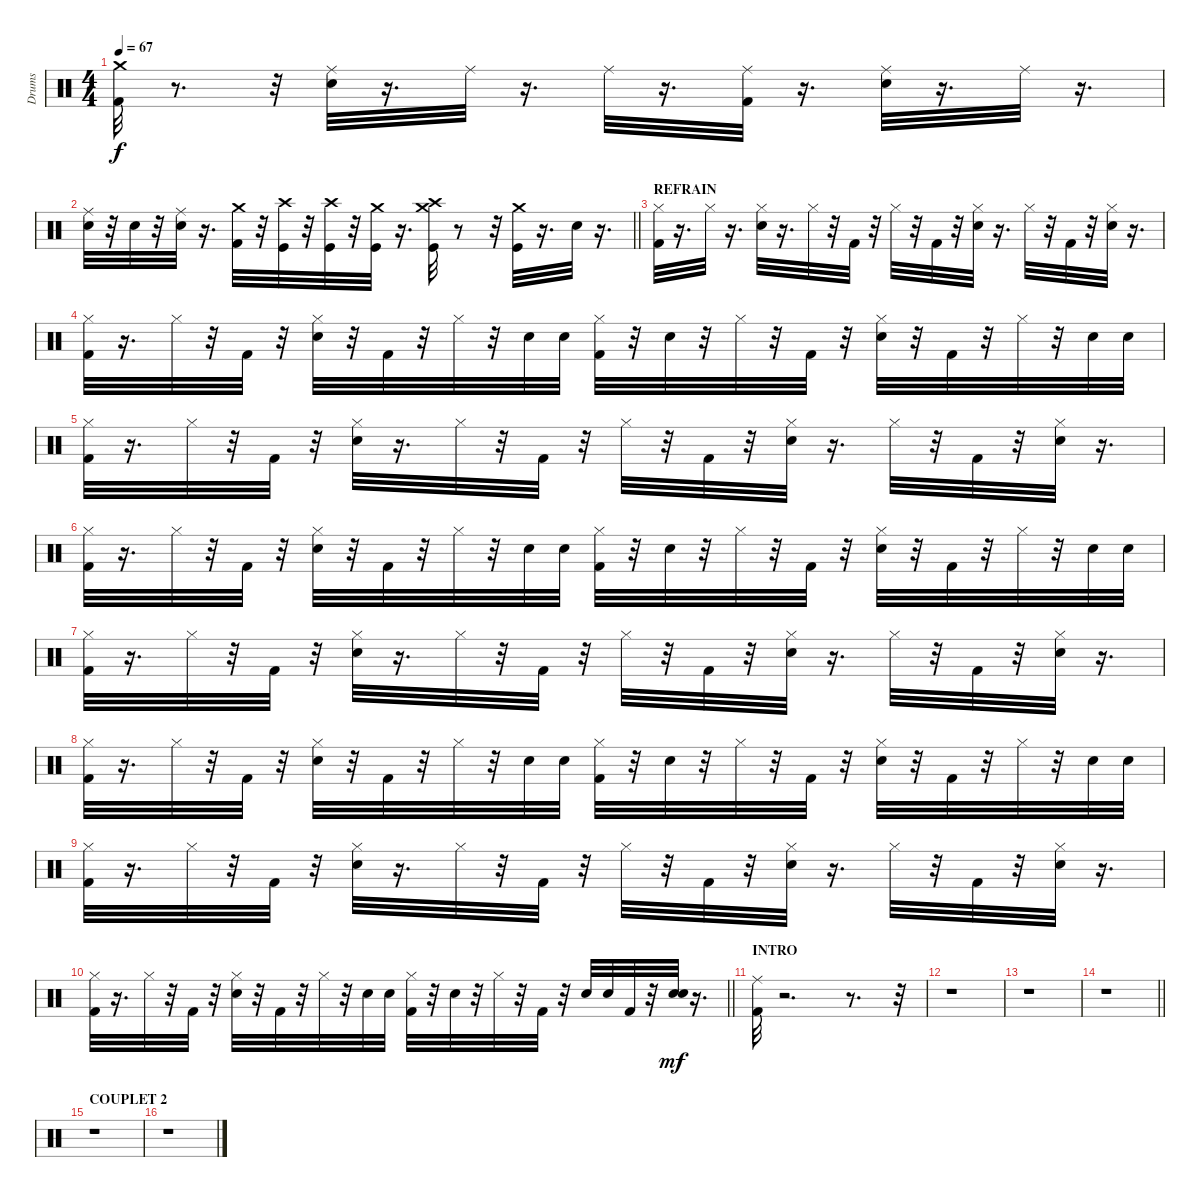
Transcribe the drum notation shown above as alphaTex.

\track ("Drums" "Drums") {instrument percussion}
\staff {score}
\articulation defaults
\ts (4 4)
\tempo 67
\clef neutral
\ks c
("Crash medium (hit)" "Kick (hit) 2").32{dy f} r.8{d} r.32 ("Ride (middle)" "Snare (hit) 2").32 r.16{d} "Ride (middle)".32 r.16{d} "Ride (middle)".32 r.16{d} ("Ride (middle)" "Kick (hit) 2").32 r.16{d} ("Ride (middle)" "Snare (hit) 2").32 r.16{d} "Ride (middle)".32 r.16{d} |
\barLineRight lightlight
("Snare (hit) 2" "Ride (middle)").32 r.32 "Snare (hit) 2".32 r.32 ("Snare (hit) 2" "Ride (middle)").32 r.16{d} ("Crash medium (hit)" "Kick (hit) 2").32 r.32 ("Crash high (hit)" "Kick (hit)").32 r.32 ("Crash high (hit)" "Kick (hit)").32 r.32 ("Crash medium (hit)" "Kick (hit)").32 r.16{d} ("Crash high (hit)" "Crash medium (hit)" "Kick (hit)").32 r.8 r.32 ("Crash medium (hit)" "Kick (hit)").32 r.16{d} "Snare (hit) 2".32 r.16{d} |
\section ("" "REFRAIN")
("Kick (hit) 2" "Hi-Hat (closed)").32 r.16{d} "Hi-Hat (closed)".32 r.16{d} ("Snare (hit) 2" "Hi-Hat (closed)").32 r.16{d} "Hi-Hat (closed)".32 r.32 "Kick (hit) 2".32 r.32 "Hi-Hat (closed)".32 r.32 "Kick (hit) 2".32 r.32 ("Snare (hit) 2" "Hi-Hat (closed)").32 r.16{d} "Hi-Hat (closed)".32 r.32 "Kick (hit) 2".32 r.32 ("Snare (hit) 2" "Hi-Hat (closed)").32 r.16{d} |
("Kick (hit) 2" "Hi-Hat (closed)").32 r.16{d} "Hi-Hat (closed)".32 r.32 "Kick (hit) 2".32 r.32 ("Snare (hit) 2" "Hi-Hat (closed)").32 r.32 "Kick (hit) 2".32 r.32 "Hi-Hat (closed)".32 r.32 "Snare (hit) 2".32 "Snare (hit) 2".32 ("Kick (hit) 2" "Hi-Hat (closed)").32 r.32 "Snare (hit) 2".32 r.32 "Hi-Hat (closed)".32 r.32 "Kick (hit) 2".32 r.32 ("Snare (hit) 2" "Hi-Hat (closed)").32 r.32 "Kick (hit) 2".32 r.32 "Hi-Hat (closed)".32 r.32 "Snare (hit) 2".32 "Snare (hit) 2".32 |
("Kick (hit) 2" "Hi-Hat (closed)").32 r.16{d} "Hi-Hat (closed)".32 r.32 "Kick (hit) 2".32 r.32 ("Snare (hit) 2" "Hi-Hat (closed)").32 r.16{d} "Hi-Hat (closed)".32 r.32 "Kick (hit) 2".32 r.32 "Hi-Hat (closed)".32 r.32 "Kick (hit) 2".32 r.32 ("Snare (hit) 2" "Hi-Hat (closed)").32 r.16{d} "Hi-Hat (closed)".32 r.32 "Kick (hit) 2".32 r.32 ("Snare (hit) 2" "Hi-Hat (closed)").32 r.16{d} |
("Kick (hit) 2" "Hi-Hat (closed)").32 r.16{d} "Hi-Hat (closed)".32 r.32 "Kick (hit) 2".32 r.32 ("Snare (hit) 2" "Hi-Hat (closed)").32 r.32 "Kick (hit) 2".32 r.32 "Hi-Hat (closed)".32 r.32 "Snare (hit) 2".32 "Snare (hit) 2".32 ("Kick (hit) 2" "Hi-Hat (closed)").32 r.32 "Snare (hit) 2".32 r.32 "Hi-Hat (closed)".32 r.32 "Kick (hit) 2".32 r.32 ("Snare (hit) 2" "Hi-Hat (closed)").32 r.32 "Kick (hit) 2".32 r.32 "Hi-Hat (closed)".32 r.32 "Snare (hit) 2".32 "Snare (hit) 2".32 |
("Kick (hit) 2" "Hi-Hat (closed)").32 r.16{d} "Hi-Hat (closed)".32 r.32 "Kick (hit) 2".32 r.32 ("Snare (hit) 2" "Hi-Hat (closed)").32 r.16{d} "Hi-Hat (closed)".32 r.32 "Kick (hit) 2".32 r.32 "Hi-Hat (closed)".32 r.32 "Kick (hit) 2".32 r.32 ("Snare (hit) 2" "Hi-Hat (closed)").32 r.16{d} "Hi-Hat (closed)".32 r.32 "Kick (hit) 2".32 r.32 ("Snare (hit) 2" "Hi-Hat (closed)").32 r.16{d} |
("Kick (hit) 2" "Hi-Hat (closed)").32 r.16{d} "Hi-Hat (closed)".32 r.32 "Kick (hit) 2".32 r.32 ("Snare (hit) 2" "Hi-Hat (closed)").32 r.32 "Kick (hit) 2".32 r.32 "Hi-Hat (closed)".32 r.32 "Snare (hit) 2".32 "Snare (hit) 2".32 ("Kick (hit) 2" "Hi-Hat (closed)").32 r.32 "Snare (hit) 2".32 r.32 "Hi-Hat (closed)".32 r.32 "Kick (hit) 2".32 r.32 ("Snare (hit) 2" "Hi-Hat (closed)").32 r.32 "Kick (hit) 2".32 r.32 "Hi-Hat (closed)".32 r.32 "Snare (hit) 2".32 "Snare (hit) 2".32 |
("Kick (hit) 2" "Hi-Hat (closed)").32 r.16{d} "Hi-Hat (closed)".32 r.32 "Kick (hit) 2".32 r.32 ("Snare (hit) 2" "Hi-Hat (closed)").32 r.16{d} "Hi-Hat (closed)".32 r.32 "Kick (hit) 2".32 r.32 "Hi-Hat (closed)".32 r.32 "Kick (hit) 2".32 r.32 ("Snare (hit) 2" "Hi-Hat (closed)").32 r.16{d} "Hi-Hat (closed)".32 r.32 "Kick (hit) 2".32 r.32 ("Snare (hit) 2" "Hi-Hat (closed)").32 r.16{d} |
\barLineRight lightlight
("Kick (hit) 2" "Hi-Hat (closed)").32 r.16{d} "Hi-Hat (closed)".32 r.32 "Kick (hit) 2".32 r.32 ("Snare (hit) 2" "Hi-Hat (closed)").32 r.32 "Kick (hit) 2".32 r.32 "Hi-Hat (closed)".32 r.32 "Snare (hit) 2".32 "Snare (hit) 2".32 ("Kick (hit) 2" "Hi-Hat (closed)").32 r.32 "Snare (hit) 2".32 r.32 "Hi-Hat (closed)".32 r.32 "Kick (hit) 2".32 r.32 "Snare (hit) 2".32 "Snare (hit) 2".32 "Kick (hit) 2".32 r.32 ("Electric Snare (hit)" "Snare (hit) 2").32{dy mf} r.16{d} |
\section ("" "INTRO")
("Ride (middle)" "Kick (hit) 2").32 r.2{d} r.8{d} r.32 |
r.1 |
r.1 |
\barLineRight lightlight
r.1 |
\section ("" "COUPLET 2")
r.1 |
r.1
